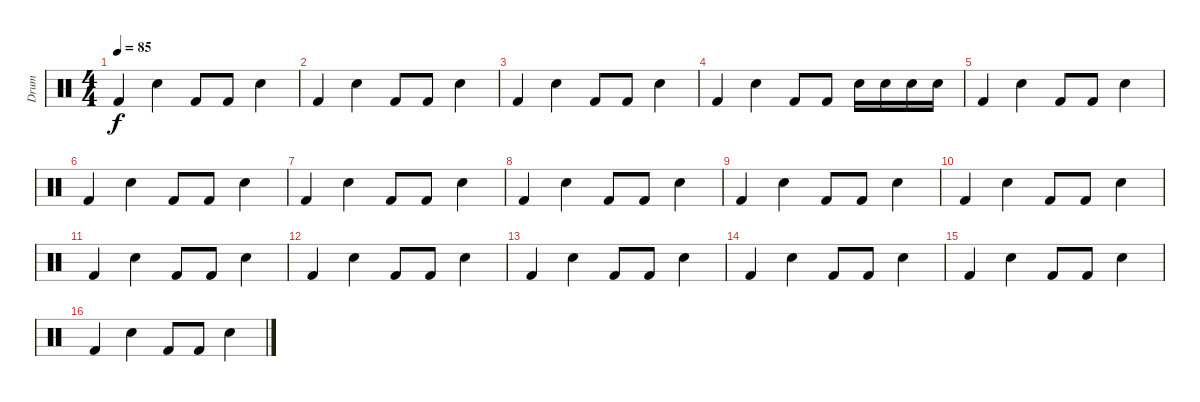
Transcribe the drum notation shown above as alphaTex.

\track ("Drum" "Drum") {instrument percussion}
\staff {score}
\articulation defaults
\ts (4 4)
\tempo 85
\clef neutral
\ks c "Kick (hit) 2".4{dy f} "Snare (hit) 2".4 "Kick (hit) 2".8 "Kick (hit) 2".8 "Snare (hit) 2".4
|
"Kick (hit) 2".4 "Snare (hit) 2".4 "Kick (hit) 2".8 "Kick (hit) 2".8 "Snare (hit) 2".4 |
"Kick (hit) 2".4 "Snare (hit) 2".4 "Kick (hit) 2".8 "Kick (hit) 2".8 "Snare (hit) 2".4 |
"Kick (hit) 2".4 "Snare (hit) 2".4 "Kick (hit) 2".8 "Kick (hit) 2".8 "Snare (hit) 2".16 "Snare (hit) 2".16 "Snare (hit) 2".16 "Snare (hit) 2".16 |
"Kick (hit) 2".4 "Snare (hit) 2".4 "Kick (hit) 2".8 "Kick (hit) 2".8 "Snare (hit) 2".4 |
"Kick (hit) 2".4 "Snare (hit) 2".4 "Kick (hit) 2".8 "Kick (hit) 2".8 "Snare (hit) 2".4 |
"Kick (hit) 2".4 "Snare (hit) 2".4 "Kick (hit) 2".8 "Kick (hit) 2".8 "Snare (hit) 2".4 |
"Kick (hit) 2".4 "Snare (hit) 2".4 "Kick (hit) 2".8 "Kick (hit) 2".8 "Snare (hit) 2".4 |
"Kick (hit) 2".4 "Snare (hit) 2".4 "Kick (hit) 2".8 "Kick (hit) 2".8 "Snare (hit) 2".4 |
"Kick (hit) 2".4 "Snare (hit) 2".4 "Kick (hit) 2".8 "Kick (hit) 2".8 "Snare (hit) 2".4 |
"Kick (hit) 2".4 "Snare (hit) 2".4 "Kick (hit) 2".8 "Kick (hit) 2".8 "Snare (hit) 2".4 |
"Kick (hit) 2".4 "Snare (hit) 2".4 "Kick (hit) 2".8 "Kick (hit) 2".8 "Snare (hit) 2".4 |
"Kick (hit) 2".4 "Snare (hit) 2".4 "Kick (hit) 2".8 "Kick (hit) 2".8 "Snare (hit) 2".4 |
"Kick (hit) 2".4 "Snare (hit) 2".4 "Kick (hit) 2".8 "Kick (hit) 2".8 "Snare (hit) 2".4 |
"Kick (hit) 2".4 "Snare (hit) 2".4 "Kick (hit) 2".8 "Kick (hit) 2".8 "Snare (hit) 2".4 |
"Kick (hit) 2".4 "Snare (hit) 2".4 "Kick (hit) 2".8 "Kick (hit) 2".8 "Snare (hit) 2".4
